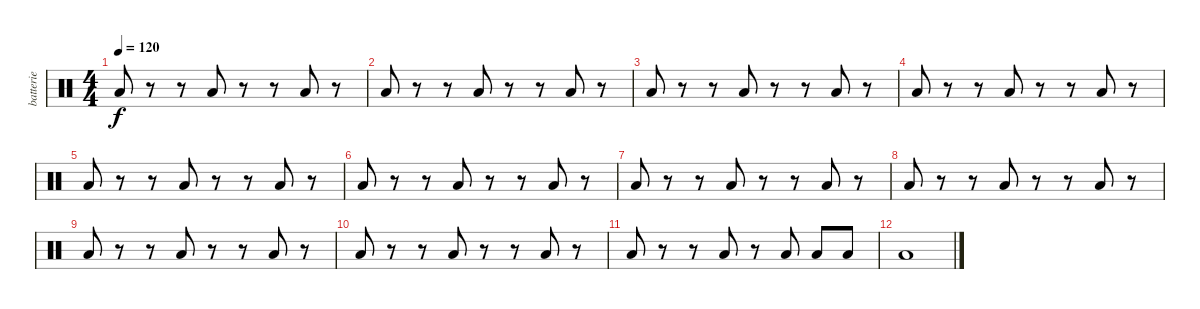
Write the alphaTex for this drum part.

\track ("batterie" "batterie") {instrument percussion}
\staff {score}
\articulation defaults
\ts (4 4)
\tempo 120
\clef neutral
\ks c "Low Floor Tom (hit)".8{dy f}
r.8 r.8 "Low Floor Tom (hit)".8 r.8 r.8 "Low Floor Tom (hit)".8 r.8 |
"Low Floor Tom (hit)".8 r.8 r.8 "Low Floor Tom (hit)".8 r.8 r.8 "Low Floor Tom (hit)".8 r.8 |
"Low Floor Tom (hit)".8 r.8 r.8 "Low Floor Tom (hit)".8 r.8 r.8 "Low Floor Tom (hit)".8 r.8 |
"Low Floor Tom (hit)".8 r.8 r.8 "Low Floor Tom (hit)".8 r.8 r.8 "Low Floor Tom (hit)".8 r.8 |
"Low Floor Tom (hit)".8 r.8 r.8 "Low Floor Tom (hit)".8 r.8 r.8 "Low Floor Tom (hit)".8 r.8 |
"Low Floor Tom (hit)".8 r.8 r.8 "Low Floor Tom (hit)".8 r.8 r.8 "Low Floor Tom (hit)".8 r.8 |
"Low Floor Tom (hit)".8 r.8 r.8 "Low Floor Tom (hit)".8 r.8 r.8 "Low Floor Tom (hit)".8 r.8 |
"Low Floor Tom (hit)".8 r.8 r.8 "Low Floor Tom (hit)".8 r.8 r.8 "Low Floor Tom (hit)".8 r.8 |
"Low Floor Tom (hit)".8 r.8 r.8 "Low Floor Tom (hit)".8 r.8 r.8 "Low Floor Tom (hit)".8 r.8 |
"Low Floor Tom (hit)".8 r.8 r.8 "Low Floor Tom (hit)".8 r.8 r.8 "Low Floor Tom (hit)".8 r.8 |
"Low Floor Tom (hit)".8 r.8 r.8 "Low Floor Tom (hit)".8 r.8 "Low Floor Tom (hit)".8 "Low Floor Tom (hit)".8 "Low Floor Tom (hit)".8 |
"Low Floor Tom (hit)".1
